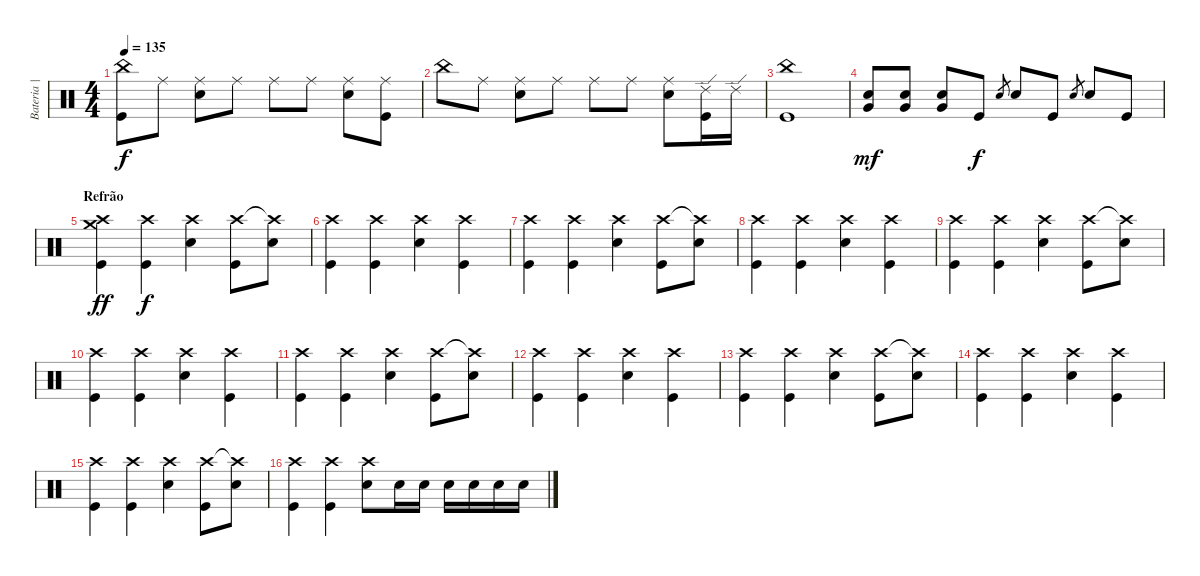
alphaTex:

\track ("Bateria | Bernardo" "Bateria | ") {instrument percussion}
\staff {score}
\articulation defaults
\ts (4 4)
\tempo 135
\clef neutral
\ks c
("China (hit)" "Kick (hit)").8{dy f} "Ride (middle)".8 ("Ride (middle)" "Snare (hit) 2").8 "Ride (middle)".8 "Ride (middle)".8 "Ride (middle)".8 ("Ride (middle)" "Snare (hit) 2").8 ("Ride (middle)" "Kick (hit)").8 |
"China (hit)".8 "Ride (middle)".8 ("Ride (middle)" "Snare (hit) 2").8 "Ride (middle)".8 "Ride (middle)".8 "Ride (middle)".8 ("Ride (middle)" "Snare (hit) 2").8 ("Ride (edge) 2" "Kick (hit)").16 "Ride (edge) 2".16 |
("China (hit)" "Kick (hit)").1 |
("Snare (hit) 2" "Very Low Tom (hit)").8{dy mf} ("Snare (hit) 2" "Very Low Tom (hit)").8 ("Snare (hit) 2" "Very Low Tom (hit)").8 "Kick (hit)".8{dy f} "Snare (hit) 2".8{gr} "Snare (hit) 2".8 "Kick (hit)".8 "Snare (hit) 2".8{gr} "Snare (hit) 2".8 "Kick (hit)".8 |
\section ("" "Refrão")
("Crash medium (hit)" "Crash high (hit)" "Kick (hit)").4{dy ff} ("Crash high (hit)" "Kick (hit)").4{dy f} ("Crash high (hit)" "Snare (hit) 2").4 ("Crash high (hit)" "Kick (hit)").8 ("Crash high (hit)"{t} "Snare (hit) 2").8 |
("Crash high (hit)" "Kick (hit)").4 ("Crash high (hit)" "Kick (hit)").4 ("Crash high (hit)" "Snare (hit) 2").4 ("Crash high (hit)" "Kick (hit)").4 |
("Crash high (hit)" "Kick (hit)").4 ("Crash high (hit)" "Kick (hit)").4 ("Crash high (hit)" "Snare (hit) 2").4 ("Crash high (hit)" "Kick (hit)").8 ("Crash high (hit)"{t} "Snare (hit) 2").8 |
("Crash high (hit)" "Kick (hit)").4 ("Crash high (hit)" "Kick (hit)").4 ("Crash high (hit)" "Snare (hit) 2").4 ("Crash high (hit)" "Kick (hit)").4 |
("Crash high (hit)" "Kick (hit)").4 ("Crash high (hit)" "Kick (hit)").4 ("Crash high (hit)" "Snare (hit) 2").4 ("Crash high (hit)" "Kick (hit)").8 ("Crash high (hit)"{t} "Snare (hit) 2").8 |
("Crash high (hit)" "Kick (hit)").4 ("Crash high (hit)" "Kick (hit)").4 ("Crash high (hit)" "Snare (hit) 2").4 ("Crash high (hit)" "Kick (hit)").4 |
("Crash high (hit)" "Kick (hit)").4 ("Crash high (hit)" "Kick (hit)").4 ("Crash high (hit)" "Snare (hit) 2").4 ("Crash high (hit)" "Kick (hit)").8 ("Crash high (hit)"{t} "Snare (hit) 2").8 |
("Crash high (hit)" "Kick (hit)").4 ("Crash high (hit)" "Kick (hit)").4 ("Crash high (hit)" "Snare (hit) 2").4 ("Crash high (hit)" "Kick (hit)").4 |
("Crash high (hit)" "Kick (hit)").4 ("Crash high (hit)" "Kick (hit)").4 ("Crash high (hit)" "Snare (hit) 2").4 ("Crash high (hit)" "Kick (hit)").8 ("Crash high (hit)"{t} "Snare (hit) 2").8 |
("Crash high (hit)" "Kick (hit)").4 ("Crash high (hit)" "Kick (hit)").4 ("Crash high (hit)" "Snare (hit) 2").4 ("Crash high (hit)" "Kick (hit)").4 |
("Crash high (hit)" "Kick (hit)").4 ("Crash high (hit)" "Kick (hit)").4 ("Crash high (hit)" "Snare (hit) 2").4 ("Crash high (hit)" "Kick (hit)").8 ("Crash high (hit)"{t} "Snare (hit) 2").8 |
("Crash high (hit)" "Kick (hit)").4 ("Crash high (hit)" "Kick (hit)").4 ("Crash high (hit)" "Snare (hit) 2").8 "Snare (hit) 2".16 "Snare (hit) 2".16 "Snare (hit) 2".16 "Snare (hit) 2".16 "Snare (hit) 2".16 "Snare (hit) 2".16
